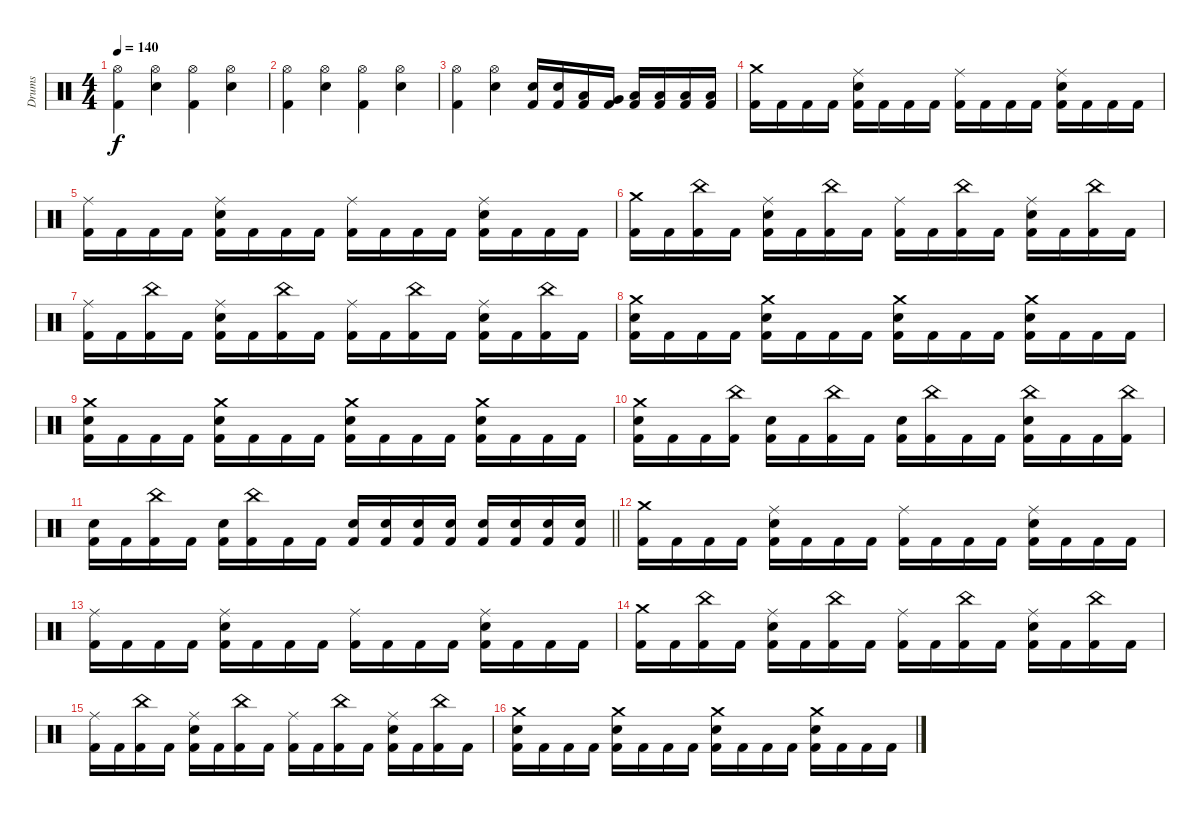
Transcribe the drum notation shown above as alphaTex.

\track ("Drums" "Drums") {instrument percussion}
\staff {score}
\articulation defaults
\ts (4 4)
\tempo 140
\clef neutral
\ks c
("Hi-Hat (open)" "Kick (hit) 2").4{dy f} ("Hi-Hat (open)" "Electric Snare (hit)").4 ("Hi-Hat (open)" "Kick (hit) 2").4 ("Hi-Hat (open)" "Electric Snare (hit)").4 |
("Hi-Hat (open)" "Kick (hit) 2").4 ("Hi-Hat (open)" "Electric Snare (hit)").4 ("Hi-Hat (open)" "Kick (hit) 2").4 ("Hi-Hat (open)" "Electric Snare (hit)").4 |
("Hi-Hat (open)" "Kick (hit) 2").4 ("Hi-Hat (open)" "Electric Snare (hit)").4 ("Electric Snare (hit)" "Kick (hit) 2").16 ("Electric Snare (hit)" "Kick (hit) 2").16 ("Low Tom (hit)" "Kick (hit) 2").16 ("Very Low Tom (hit)" "Kick (hit) 2").16 ("Low Floor Tom (hit)" "Kick (hit) 2").16 ("Low Floor Tom (hit)" "Kick (hit) 2").16 ("Low Floor Tom (hit)" "Kick (hit) 2").16 ("Low Floor Tom (hit)" "Kick (hit) 2").16 |
("Crash medium (hit)" "Kick (hit) 2").16 "Kick (hit) 2".16 "Kick (hit) 2".16 "Kick (hit) 2".16 ("Ride (middle)" "Electric Snare (hit)" "Kick (hit) 2").16 "Kick (hit) 2".16 "Kick (hit) 2".16 "Kick (hit) 2".16 ("Ride (middle)" "Kick (hit) 2").16 "Kick (hit) 2".16 "Kick (hit) 2".16 "Kick (hit) 2".16 ("Ride (middle)" "Electric Snare (hit)" "Kick (hit) 2").16 "Kick (hit) 2".16 "Kick (hit) 2".16 "Kick (hit) 2".16 |
("Ride (middle)" "Kick (hit) 2").16 "Kick (hit) 2".16 "Kick (hit) 2".16 "Kick (hit) 2".16 ("Ride (middle)" "Electric Snare (hit)" "Kick (hit) 2").16 "Kick (hit) 2".16 "Kick (hit) 2".16 "Kick (hit) 2".16 ("Ride (middle)" "Kick (hit) 2").16 "Kick (hit) 2".16 "Kick (hit) 2".16 "Kick (hit) 2".16 ("Ride (middle)" "Electric Snare (hit)" "Kick (hit) 2").16 "Kick (hit) 2".16 "Kick (hit) 2".16 "Kick (hit) 2".16 |
("Crash medium (hit)" "Kick (hit) 2").16 "Kick (hit) 2".16 ("China (hit)" "Kick (hit) 2").16 "Kick (hit) 2".16 ("Ride (middle)" "Electric Snare (hit)" "Kick (hit) 2").16 "Kick (hit) 2".16 ("China (hit)" "Kick (hit) 2").16 "Kick (hit) 2".16 ("Ride (middle)" "Kick (hit) 2").16 "Kick (hit) 2".16 ("China (hit)" "Kick (hit) 2").16 "Kick (hit) 2".16 ("Ride (middle)" "Electric Snare (hit)" "Kick (hit) 2").16 "Kick (hit) 2".16 ("China (hit)" "Kick (hit) 2").16 "Kick (hit) 2".16 |
("Ride (middle)" "Kick (hit) 2").16 "Kick (hit) 2".16 ("China (hit)" "Kick (hit) 2").16 "Kick (hit) 2".16 ("Ride (middle)" "Electric Snare (hit)" "Kick (hit) 2").16 "Kick (hit) 2".16 ("China (hit)" "Kick (hit) 2").16 "Kick (hit) 2".16 ("Ride (middle)" "Kick (hit) 2").16 "Kick (hit) 2".16 ("China (hit)" "Kick (hit) 2").16 "Kick (hit) 2".16 ("Ride (middle)" "Electric Snare (hit)" "Kick (hit) 2").16 "Kick (hit) 2".16 ("China (hit)" "Kick (hit) 2").16 "Kick (hit) 2".16 |
("Crash medium (hit)" "Electric Snare (hit)" "Kick (hit) 2").16 "Kick (hit) 2".16 "Kick (hit) 2".16 "Kick (hit) 2".16 ("Crash medium (hit)" "Electric Snare (hit)" "Kick (hit) 2").16 "Kick (hit) 2".16 "Kick (hit) 2".16 "Kick (hit) 2".16 ("Crash medium (hit)" "Electric Snare (hit)" "Kick (hit) 2").16 "Kick (hit) 2".16 "Kick (hit) 2".16 "Kick (hit) 2".16 ("Crash medium (hit)" "Electric Snare (hit)" "Kick (hit) 2").16 "Kick (hit) 2".16 "Kick (hit) 2".16 "Kick (hit) 2".16 |
("Crash medium (hit)" "Electric Snare (hit)" "Kick (hit) 2").16 "Kick (hit) 2".16 "Kick (hit) 2".16 "Kick (hit) 2".16 ("Crash medium (hit)" "Electric Snare (hit)" "Kick (hit) 2").16 "Kick (hit) 2".16 "Kick (hit) 2".16 "Kick (hit) 2".16 ("Crash medium (hit)" "Electric Snare (hit)" "Kick (hit) 2").16 "Kick (hit) 2".16 "Kick (hit) 2".16 "Kick (hit) 2".16 ("Crash medium (hit)" "Electric Snare (hit)" "Kick (hit) 2").16 "Kick (hit) 2".16 "Kick (hit) 2".16 "Kick (hit) 2".16 |
("Crash medium (hit)" "Electric Snare (hit)" "Kick (hit) 2").16 "Kick (hit) 2".16 "Kick (hit) 2".16 ("China (hit)" "Kick (hit) 2").16 ("Electric Snare (hit)" "Kick (hit) 2").16 "Kick (hit) 2".16 ("China (hit)" "Kick (hit) 2").16 "Kick (hit) 2".16 ("Electric Snare (hit)" "Kick (hit) 2").16 ("China (hit)" "Kick (hit) 2").16 "Kick (hit) 2".16 "Kick (hit) 2".16 ("China (hit)" "Electric Snare (hit)" "Kick (hit) 2").16 "Kick (hit) 2".16 "Kick (hit) 2".16 ("China (hit)" "Kick (hit) 2").16 |
\barLineRight lightlight
("Electric Snare (hit)" "Kick (hit) 2").16 "Kick (hit) 2".16 ("China (hit)" "Kick (hit) 2").16 "Kick (hit) 2".16 ("Electric Snare (hit)" "Kick (hit) 2").16 ("China (hit)" "Kick (hit) 2").16 "Kick (hit) 2".16 "Kick (hit) 2".16 ("Electric Snare (hit)" "Kick (hit) 2").16 ("Electric Snare (hit)" "Kick (hit) 2").16 ("Electric Snare (hit)" "Kick (hit) 2").16 ("Electric Snare (hit)" "Kick (hit) 2").16 ("Electric Snare (hit)" "Kick (hit) 2").16 ("Electric Snare (hit)" "Kick (hit) 2").16 ("Electric Snare (hit)" "Kick (hit) 2").16 ("Electric Snare (hit)" "Kick (hit) 2").16 |
("Crash medium (hit)" "Kick (hit) 2").16 "Kick (hit) 2".16 "Kick (hit) 2".16 "Kick (hit) 2".16 ("Ride (middle)" "Electric Snare (hit)" "Kick (hit) 2").16 "Kick (hit) 2".16 "Kick (hit) 2".16 "Kick (hit) 2".16 ("Ride (middle)" "Kick (hit) 2").16 "Kick (hit) 2".16 "Kick (hit) 2".16 "Kick (hit) 2".16 ("Ride (middle)" "Electric Snare (hit)" "Kick (hit) 2").16 "Kick (hit) 2".16 "Kick (hit) 2".16 "Kick (hit) 2".16 |
("Ride (middle)" "Kick (hit) 2").16 "Kick (hit) 2".16 "Kick (hit) 2".16 "Kick (hit) 2".16 ("Ride (middle)" "Electric Snare (hit)" "Kick (hit) 2").16 "Kick (hit) 2".16 "Kick (hit) 2".16 "Kick (hit) 2".16 ("Ride (middle)" "Kick (hit) 2").16 "Kick (hit) 2".16 "Kick (hit) 2".16 "Kick (hit) 2".16 ("Ride (middle)" "Electric Snare (hit)" "Kick (hit) 2").16 "Kick (hit) 2".16 "Kick (hit) 2".16 "Kick (hit) 2".16 |
("Crash medium (hit)" "Kick (hit) 2").16 "Kick (hit) 2".16 ("China (hit)" "Kick (hit) 2").16 "Kick (hit) 2".16 ("Ride (middle)" "Electric Snare (hit)" "Kick (hit) 2").16 "Kick (hit) 2".16 ("China (hit)" "Kick (hit) 2").16 "Kick (hit) 2".16 ("Ride (middle)" "Kick (hit) 2").16 "Kick (hit) 2".16 ("China (hit)" "Kick (hit) 2").16 "Kick (hit) 2".16 ("Ride (middle)" "Electric Snare (hit)" "Kick (hit) 2").16 "Kick (hit) 2".16 ("China (hit)" "Kick (hit) 2").16 "Kick (hit) 2".16 |
("Ride (middle)" "Kick (hit) 2").16 "Kick (hit) 2".16 ("China (hit)" "Kick (hit) 2").16 "Kick (hit) 2".16 ("Ride (middle)" "Electric Snare (hit)" "Kick (hit) 2").16 "Kick (hit) 2".16 ("China (hit)" "Kick (hit) 2").16 "Kick (hit) 2".16 ("Ride (middle)" "Kick (hit) 2").16 "Kick (hit) 2".16 ("China (hit)" "Kick (hit) 2").16 "Kick (hit) 2".16 ("Ride (middle)" "Electric Snare (hit)" "Kick (hit) 2").16 "Kick (hit) 2".16 ("China (hit)" "Kick (hit) 2").16 "Kick (hit) 2".16 |
("Crash medium (hit)" "Electric Snare (hit)" "Kick (hit) 2").16 "Kick (hit) 2".16 "Kick (hit) 2".16 "Kick (hit) 2".16 ("Crash medium (hit)" "Electric Snare (hit)" "Kick (hit) 2").16 "Kick (hit) 2".16 "Kick (hit) 2".16 "Kick (hit) 2".16 ("Crash medium (hit)" "Electric Snare (hit)" "Kick (hit) 2").16 "Kick (hit) 2".16 "Kick (hit) 2".16 "Kick (hit) 2".16 ("Crash medium (hit)" "Electric Snare (hit)" "Kick (hit) 2").16 "Kick (hit) 2".16 "Kick (hit) 2".16 "Kick (hit) 2".16
